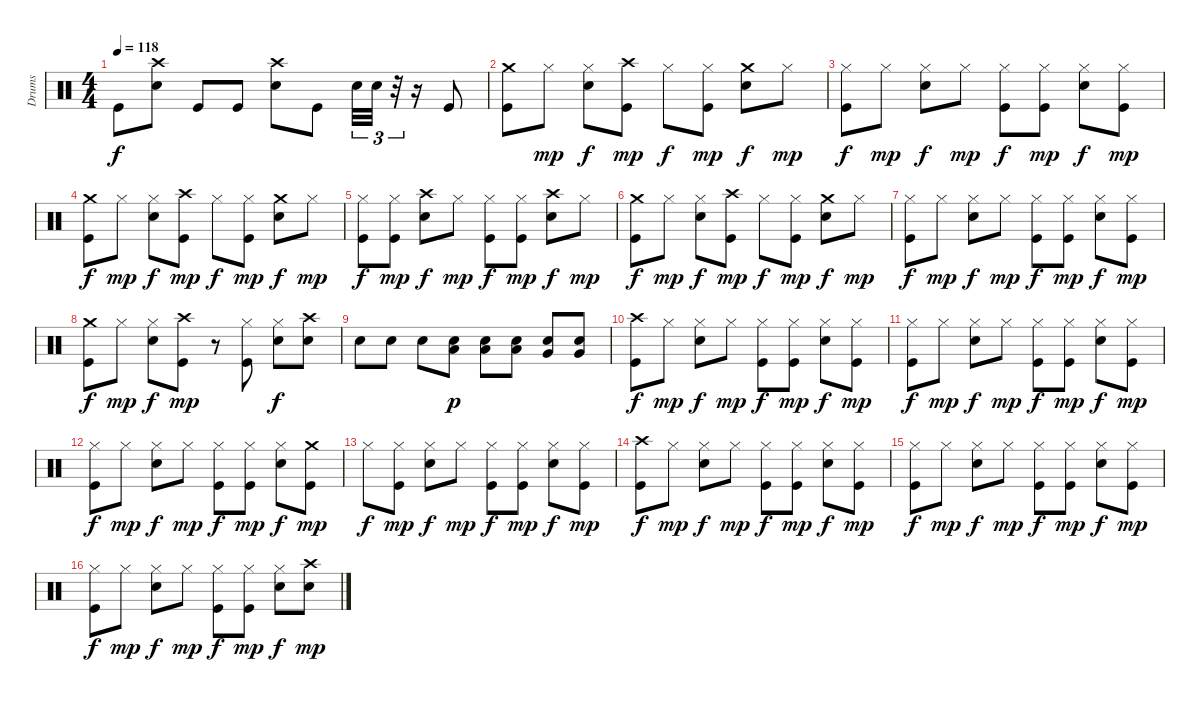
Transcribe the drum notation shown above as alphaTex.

\track ("Drums" "Drums") {instrument percussion}
\staff {score}
\articulation defaults
\ts (4 4)
\tempo 118
\clef neutral
\ks c "Kick (hit)".8{dy f}
("Crash high (hit)" "Snare (hit) 2").8 "Kick (hit)".8 "Kick (hit)".8 ("Crash high (hit)" "Snare (hit) 2").8 "Kick (hit)".8 "Snare (hit) 2".32{tu (3 2)} "Snare (hit) 2".32{tu (3 2)} r.32{tu (3 2)} r.16 "Kick (hit)".8 |
("Crash medium (hit)" "Kick (hit)").8 "Hi-Hat (closed)".8{dy mp} ("Hi-Hat (closed)" "Snare (hit) 2").8{dy f} ("Crash high (hit)" "Kick (hit)").8{dy mp} "Hi-Hat (closed)".8{dy f} ("Hi-Hat (closed)" "Kick (hit)").8{dy mp} ("Crash medium (hit)" "Snare (hit) 2").8{dy f} "Hi-Hat (closed)".8{dy mp} |
("Hi-Hat (closed)" "Kick (hit)").8{dy f} "Hi-Hat (closed)".8{dy mp} ("Hi-Hat (closed)" "Snare (hit) 2").8{dy f} "Hi-Hat (closed)".8{dy mp} ("Hi-Hat (closed)" "Kick (hit)").8{dy f} ("Hi-Hat (closed)" "Kick (hit)").8{dy mp} ("Hi-Hat (closed)" "Snare (hit) 2").8{dy f} ("Hi-Hat (closed)" "Kick (hit)").8{dy mp} |
("Crash medium (hit)" "Kick (hit)").8{dy f} "Hi-Hat (closed)".8{dy mp} ("Hi-Hat (closed)" "Snare (hit) 2").8{dy f} ("Crash high (hit)" "Kick (hit)").8{dy mp} "Hi-Hat (closed)".8{dy f} ("Hi-Hat (closed)" "Kick (hit)").8{dy mp} ("Crash medium (hit)" "Snare (hit) 2").8{dy f} "Hi-Hat (closed)".8{dy mp} |
("Hi-Hat (closed)" "Kick (hit)").8{dy f} ("Hi-Hat (closed)" "Kick (hit)").8{dy mp} ("Crash high (hit)" "Snare (hit) 2").8{dy f} "Hi-Hat (closed)".8{dy mp} ("Hi-Hat (closed)" "Kick (hit)").8{dy f} ("Hi-Hat (closed)" "Kick (hit)").8{dy mp} ("Crash high (hit)" "Snare (hit) 2").8{dy f} "Hi-Hat (closed)".8{dy mp} |
("Crash medium (hit)" "Kick (hit)").8{dy f} "Hi-Hat (closed)".8{dy mp} ("Hi-Hat (closed)" "Snare (hit) 2").8{dy f} ("Crash high (hit)" "Kick (hit)").8{dy mp} "Hi-Hat (closed)".8{dy f} ("Hi-Hat (closed)" "Kick (hit)").8{dy mp} ("Crash medium (hit)" "Snare (hit) 2").8{dy f} "Hi-Hat (closed)".8{dy mp} |
("Hi-Hat (closed)" "Kick (hit)").8{dy f} "Hi-Hat (closed)".8{dy mp} ("Hi-Hat (closed)" "Snare (hit) 2").8{dy f} "Hi-Hat (closed)".8{dy mp} ("Hi-Hat (closed)" "Kick (hit)").8{dy f} ("Hi-Hat (closed)" "Kick (hit)").8{dy mp} ("Hi-Hat (closed)" "Snare (hit) 2").8{dy f} ("Hi-Hat (closed)" "Kick (hit)").8{dy mp} |
("Crash medium (hit)" "Kick (hit)").8{dy f} "Hi-Hat (closed)".8{dy mp} ("Hi-Hat (closed)" "Snare (hit) 2").8{dy f} ("Crash high (hit)" "Kick (hit)").8{dy mp} r.8 ("Hi-Hat (closed)" "Kick (hit)").8 ("Hi-Hat (closed)" "Snare (hit) 2").8{dy f} ("Crash high (hit)" "Snare (hit) 2").8 |
"Snare (hit) 2".8 "Snare (hit) 2".8 "Snare (hit) 2".8 ("Low Tom (hit)" "Snare (hit) 2").8{dy p} ("Low Tom (hit)" "Snare (hit) 2").8 ("Low Tom (hit)" "Snare (hit) 2").8 ("Very Low Tom (hit)" "Snare (hit) 2").8 ("Very Low Tom (hit)" "Snare (hit) 2").8 |
("Crash high (hit)" "Kick (hit)").8{dy f} "Hi-Hat (closed)".8{dy mp} ("Hi-Hat (closed)" "Snare (hit) 2").8{dy f} "Hi-Hat (closed)".8{dy mp} ("Hi-Hat (closed)" "Kick (hit)").8{dy f} ("Hi-Hat (closed)" "Kick (hit)").8{dy mp} ("Hi-Hat (closed)" "Snare (hit) 2").8{dy f} ("Hi-Hat (closed)" "Kick (hit)").8{dy mp} |
("Hi-Hat (closed)" "Kick (hit)").8{dy f} "Hi-Hat (closed)".8{dy mp} ("Hi-Hat (closed)" "Snare (hit) 2").8{dy f} "Hi-Hat (closed)".8{dy mp} ("Hi-Hat (closed)" "Kick (hit)").8{dy f} ("Hi-Hat (closed)" "Kick (hit)").8{dy mp} ("Hi-Hat (closed)" "Snare (hit) 2").8{dy f} ("Hi-Hat (closed)" "Kick (hit)").8{dy mp} |
("Hi-Hat (closed)" "Kick (hit)").8{dy f} "Hi-Hat (closed)".8{dy mp} ("Hi-Hat (closed)" "Snare (hit) 2").8{dy f} "Hi-Hat (closed)".8{dy mp} ("Hi-Hat (closed)" "Kick (hit)").8{dy f} ("Hi-Hat (closed)" "Kick (hit)").8{dy mp} ("Hi-Hat (closed)" "Snare (hit) 2").8{dy f} ("Crash medium (hit)" "Kick (hit)").8{dy mp} |
"Hi-Hat (closed)".8{dy f} ("Hi-Hat (closed)" "Kick (hit)").8{dy mp} ("Hi-Hat (closed)" "Snare (hit) 2").8{dy f} "Hi-Hat (closed)".8{dy mp} ("Hi-Hat (closed)" "Kick (hit)").8{dy f} ("Hi-Hat (closed)" "Kick (hit)").8{dy mp} ("Hi-Hat (closed)" "Snare (hit) 2").8{dy f} ("Hi-Hat (closed)" "Kick (hit)").8{dy mp} |
("Crash high (hit)" "Kick (hit)").8{dy f} "Hi-Hat (closed)".8{dy mp} ("Hi-Hat (closed)" "Snare (hit) 2").8{dy f} "Hi-Hat (closed)".8{dy mp} ("Hi-Hat (closed)" "Kick (hit)").8{dy f} ("Hi-Hat (closed)" "Kick (hit)").8{dy mp} ("Hi-Hat (closed)" "Snare (hit) 2").8{dy f} ("Hi-Hat (closed)" "Kick (hit)").8{dy mp} |
("Hi-Hat (closed)" "Kick (hit)").8{dy f} "Hi-Hat (closed)".8{dy mp} ("Hi-Hat (closed)" "Snare (hit) 2").8{dy f} "Hi-Hat (closed)".8{dy mp} ("Hi-Hat (closed)" "Kick (hit)").8{dy f} ("Hi-Hat (closed)" "Kick (hit)").8{dy mp} ("Hi-Hat (closed)" "Snare (hit) 2").8{dy f} ("Hi-Hat (closed)" "Kick (hit)").8{dy mp} |
("Hi-Hat (closed)" "Kick (hit)").8{dy f} "Hi-Hat (closed)".8{dy mp} ("Hi-Hat (closed)" "Snare (hit) 2").8{dy f} "Hi-Hat (closed)".8{dy mp} ("Hi-Hat (closed)" "Kick (hit)").8{dy f} ("Hi-Hat (closed)" "Kick (hit)").8{dy mp} ("Hi-Hat (closed)" "Snare (hit) 2").8{dy f} ("Crash high (hit)" "Snare (hit) 2").8{dy mp}
